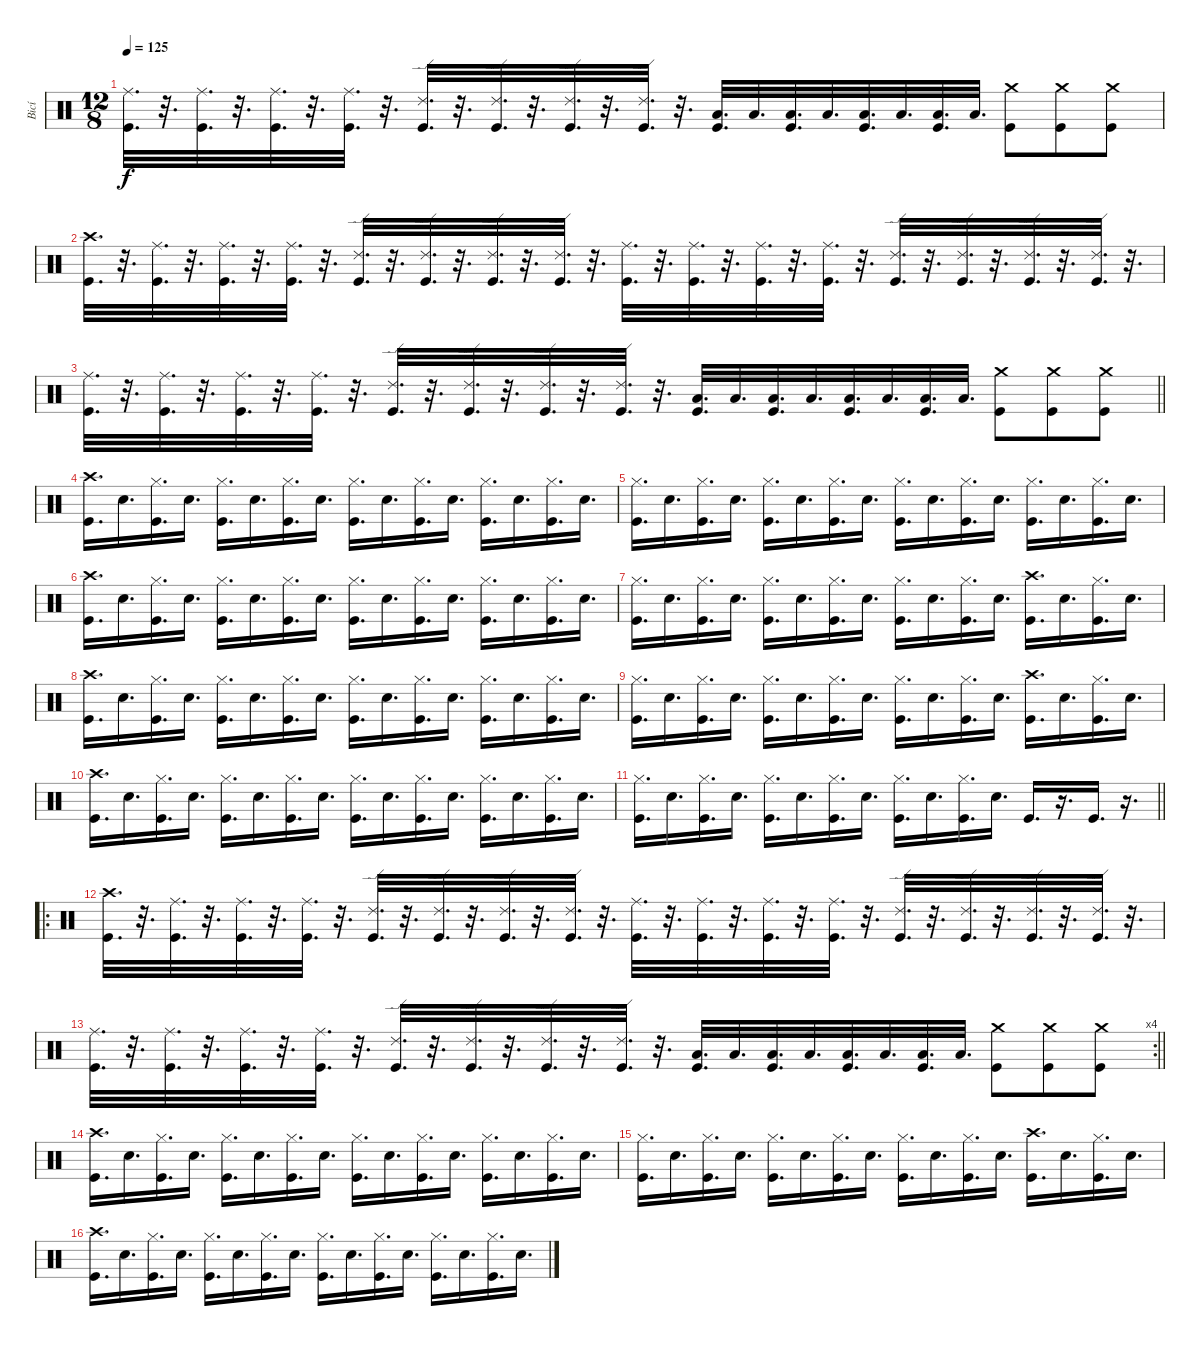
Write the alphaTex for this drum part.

\track ("Bicí" "Bicí") {instrument percussion}
\staff {score}
\articulation defaults
\ts (12 8)
\tempo 125
\clef neutral
\ks c
("Ride (middle)" "Kick (hit)").32{d dy f} r.32{d} ("Ride (middle)" "Kick (hit)").32{d} r.32{d} ("Ride (middle)" "Kick (hit)").32{d} r.32{d} ("Ride (middle)" "Kick (hit)").32{d} r.32{d} ("Ride (edge) 2" "Kick (hit)").32{d} r.32{d} ("Ride (edge) 2" "Kick (hit)").32{d} r.32{d} ("Ride (edge) 2" "Kick (hit)").32{d} r.32{d} ("Ride (edge) 2" "Kick (hit)").32{d} r.32{d} ("Low Tom (hit)" "Kick (hit)").32{d} "Low Tom (hit)".32{d} ("Low Tom (hit)" "Kick (hit)").32{d} "Low Tom (hit)".32{d} ("Low Tom (hit)" "Kick (hit)").32{d} "Low Tom (hit)".32{d} ("Low Tom (hit)" "Kick (hit)").32{d} "Low Tom (hit)".32{d} ("Crash medium (hit)" "Kick (hit)").8 ("Crash medium (hit)" "Kick (hit)").8 ("Crash medium (hit)" "Kick (hit)").8 |
("Crash high (hit)" "Kick (hit)").32{d} r.32{d} ("Ride (middle)" "Kick (hit)").32{d} r.32{d} ("Ride (middle)" "Kick (hit)").32{d} r.32{d} ("Ride (middle)" "Kick (hit)").32{d} r.32{d} ("Ride (edge) 2" "Kick (hit)").32{d} r.32{d} ("Ride (edge) 2" "Kick (hit)").32{d} r.32{d} ("Ride (edge) 2" "Kick (hit)").32{d} r.32{d} ("Ride (edge) 2" "Kick (hit)").32{d} r.32{d} ("Ride (middle)" "Kick (hit)").32{d} r.32{d} ("Ride (middle)" "Kick (hit)").32{d} r.32{d} ("Ride (middle)" "Kick (hit)").32{d} r.32{d} ("Ride (middle)" "Kick (hit)").32{d} r.32{d} ("Ride (edge) 2" "Kick (hit)").32{d} r.32{d} ("Ride (edge) 2" "Kick (hit)").32{d} r.32{d} ("Ride (edge) 2" "Kick (hit)").32{d} r.32{d} ("Ride (edge) 2" "Kick (hit)").32{d} r.32{d} |
\barLineRight lightlight
("Ride (middle)" "Kick (hit)").32{d} r.32{d} ("Ride (middle)" "Kick (hit)").32{d} r.32{d} ("Ride (middle)" "Kick (hit)").32{d} r.32{d} ("Ride (middle)" "Kick (hit)").32{d} r.32{d} ("Ride (edge) 2" "Kick (hit)").32{d} r.32{d} ("Ride (edge) 2" "Kick (hit)").32{d} r.32{d} ("Ride (edge) 2" "Kick (hit)").32{d} r.32{d} ("Ride (edge) 2" "Kick (hit)").32{d} r.32{d} ("Low Tom (hit)" "Kick (hit)").32{d} "Low Tom (hit)".32{d} ("Low Tom (hit)" "Kick (hit)").32{d} "Low Floor Tom (hit)".32{d} ("Low Floor Tom (hit)" "Kick (hit)").32{d} "Low Floor Tom (hit)".32{d} ("Low Floor Tom (hit)" "Kick (hit)").32{d} "Low Floor Tom (hit)".32{d} ("Crash medium (hit)" "Kick (hit)").8 ("Crash medium (hit)" "Kick (hit)").8 ("Crash medium (hit)" "Kick (hit)").8 |
("Crash high (hit)" "Kick (hit)").16{d} "Electric Snare (hit)".16{d} ("Hi-Hat (closed)" "Kick (hit)").16{d} "Electric Snare (hit)".16{d} ("Hi-Hat (closed)" "Kick (hit)").16{d} "Electric Snare (hit)".16{d} ("Hi-Hat (closed)" "Kick (hit)").16{d} "Electric Snare (hit)".16{d} ("Hi-Hat (closed)" "Kick (hit)").16{d} "Electric Snare (hit)".16{d} ("Hi-Hat (closed)" "Kick (hit)").16{d} "Electric Snare (hit)".16{d} ("Hi-Hat (closed)" "Kick (hit)").16{d} "Electric Snare (hit)".16{d} ("Hi-Hat (closed)" "Kick (hit)").16{d} "Electric Snare (hit)".16{d} |
("Hi-Hat (closed)" "Kick (hit)").16{d} "Electric Snare (hit)".16{d} ("Hi-Hat (closed)" "Kick (hit)").16{d} "Electric Snare (hit)".16{d} ("Hi-Hat (closed)" "Kick (hit)").16{d} "Electric Snare (hit)".16{d} ("Hi-Hat (closed)" "Kick (hit)").16{d} "Electric Snare (hit)".16{d} ("Hi-Hat (closed)" "Kick (hit)").16{d} "Electric Snare (hit)".16{d} ("Hi-Hat (closed)" "Kick (hit)").16{d} "Electric Snare (hit)".16{d} ("Hi-Hat (closed)" "Kick (hit)").16{d} "Electric Snare (hit)".16{d} ("Hi-Hat (closed)" "Kick (hit)").16{d} "Electric Snare (hit)".16{d} |
("Crash high (hit)" "Kick (hit)").16{d} "Electric Snare (hit)".16{d} ("Hi-Hat (closed)" "Kick (hit)").16{d} "Electric Snare (hit)".16{d} ("Hi-Hat (closed)" "Kick (hit)").16{d} "Electric Snare (hit)".16{d} ("Hi-Hat (closed)" "Kick (hit)").16{d} "Electric Snare (hit)".16{d} ("Hi-Hat (closed)" "Kick (hit)").16{d} "Electric Snare (hit)".16{d} ("Hi-Hat (closed)" "Kick (hit)").16{d} "Electric Snare (hit)".16{d} ("Hi-Hat (closed)" "Kick (hit)").16{d} "Electric Snare (hit)".16{d} ("Hi-Hat (closed)" "Kick (hit)").16{d} "Electric Snare (hit)".16{d} |
("Hi-Hat (closed)" "Kick (hit)").16{d} "Electric Snare (hit)".16{d} ("Hi-Hat (closed)" "Kick (hit)").16{d} "Electric Snare (hit)".16{d} ("Hi-Hat (closed)" "Kick (hit)").16{d} "Electric Snare (hit)".16{d} ("Hi-Hat (closed)" "Kick (hit)").16{d} "Electric Snare (hit)".16{d} ("Hi-Hat (closed)" "Kick (hit)").16{d} "Electric Snare (hit)".16{d} ("Hi-Hat (closed)" "Kick (hit)").16{d} "Electric Snare (hit)".16{d} ("Crash high (hit)" "Kick (hit)").16{d} "Electric Snare (hit)".16{d} ("Hi-Hat (closed)" "Kick (hit)").16{d} "Electric Snare (hit)".16{d} |
("Crash high (hit)" "Kick (hit)").16{d} "Electric Snare (hit)".16{d} ("Hi-Hat (closed)" "Kick (hit)").16{d} "Electric Snare (hit)".16{d} ("Hi-Hat (closed)" "Kick (hit)").16{d} "Electric Snare (hit)".16{d} ("Hi-Hat (closed)" "Kick (hit)").16{d} "Electric Snare (hit)".16{d} ("Hi-Hat (closed)" "Kick (hit)").16{d} "Electric Snare (hit)".16{d} ("Hi-Hat (closed)" "Kick (hit)").16{d} "Electric Snare (hit)".16{d} ("Hi-Hat (closed)" "Kick (hit)").16{d} "Electric Snare (hit)".16{d} ("Hi-Hat (closed)" "Kick (hit)").16{d} "Electric Snare (hit)".16{d} |
("Hi-Hat (closed)" "Kick (hit)").16{d} "Electric Snare (hit)".16{d} ("Hi-Hat (closed)" "Kick (hit)").16{d} "Electric Snare (hit)".16{d} ("Hi-Hat (closed)" "Kick (hit)").16{d} "Electric Snare (hit)".16{d} ("Hi-Hat (closed)" "Kick (hit)").16{d} "Electric Snare (hit)".16{d} ("Hi-Hat (closed)" "Kick (hit)").16{d} "Electric Snare (hit)".16{d} ("Hi-Hat (closed)" "Kick (hit)").16{d} "Electric Snare (hit)".16{d} ("Crash high (hit)" "Kick (hit)").16{d} "Electric Snare (hit)".16{d} ("Hi-Hat (closed)" "Kick (hit)").16{d} "Electric Snare (hit)".16{d} |
("Crash high (hit)" "Kick (hit)").16{d} "Electric Snare (hit)".16{d} ("Hi-Hat (closed)" "Kick (hit)").16{d} "Electric Snare (hit)".16{d} ("Hi-Hat (closed)" "Kick (hit)").16{d} "Electric Snare (hit)".16{d} ("Hi-Hat (closed)" "Kick (hit)").16{d} "Electric Snare (hit)".16{d} ("Hi-Hat (closed)" "Kick (hit)").16{d} "Electric Snare (hit)".16{d} ("Hi-Hat (closed)" "Kick (hit)").16{d} "Electric Snare (hit)".16{d} ("Hi-Hat (closed)" "Kick (hit)").16{d} "Electric Snare (hit)".16{d} ("Hi-Hat (closed)" "Kick (hit)").16{d} "Electric Snare (hit)".16{d} |
\barLineRight lightlight
("Hi-Hat (closed)" "Kick (hit)").16{d} "Electric Snare (hit)".16{d} ("Hi-Hat (closed)" "Kick (hit)").16{d} "Electric Snare (hit)".16{d} ("Hi-Hat (closed)" "Kick (hit)").16{d} "Electric Snare (hit)".16{d} ("Hi-Hat (closed)" "Kick (hit)").16{d} "Electric Snare (hit)".16{d} ("Hi-Hat (closed)" "Kick (hit)").16{d} "Electric Snare (hit)".16{d} ("Hi-Hat (closed)" "Kick (hit)").16{d} "Electric Snare (hit)".16{d} "Kick (hit)".16{d} r.16{d} "Kick (hit)".16{d} r.16{d} |
\ro
("Crash high (hit)" "Kick (hit)").32{d} r.32{d} ("Ride (middle)" "Kick (hit)").32{d} r.32{d} ("Ride (middle)" "Kick (hit)").32{d} r.32{d} ("Ride (middle)" "Kick (hit)").32{d} r.32{d} ("Ride (edge) 2" "Kick (hit)").32{d} r.32{d} ("Ride (edge) 2" "Kick (hit)").32{d} r.32{d} ("Ride (edge) 2" "Kick (hit)").32{d} r.32{d} ("Ride (edge) 2" "Kick (hit)").32{d} r.32{d} ("Ride (middle)" "Kick (hit)").32{d} r.32{d} ("Ride (middle)" "Kick (hit)").32{d} r.32{d} ("Ride (middle)" "Kick (hit)").32{d} r.32{d} ("Ride (middle)" "Kick (hit)").32{d} r.32{d} ("Ride (edge) 2" "Kick (hit)").32{d} r.32{d} ("Ride (edge) 2" "Kick (hit)").32{d} r.32{d} ("Ride (edge) 2" "Kick (hit)").32{d} r.32{d} ("Ride (edge) 2" "Kick (hit)").32{d} r.32{d} |
\rc 4
\barLineRight lightlight
("Ride (middle)" "Kick (hit)").32{d} r.32{d} ("Ride (middle)" "Kick (hit)").32{d} r.32{d} ("Ride (middle)" "Kick (hit)").32{d} r.32{d} ("Ride (middle)" "Kick (hit)").32{d} r.32{d} ("Ride (edge) 2" "Kick (hit)").32{d} r.32{d} ("Ride (edge) 2" "Kick (hit)").32{d} r.32{d} ("Ride (edge) 2" "Kick (hit)").32{d} r.32{d} ("Ride (edge) 2" "Kick (hit)").32{d} r.32{d} ("Low Tom (hit)" "Kick (hit)").32{d} "Low Tom (hit)".32{d} ("Low Tom (hit)" "Kick (hit)").32{d} "Low Tom (hit)".32{d} ("Low Tom (hit)" "Kick (hit)").32{d} "Low Tom (hit)".32{d} ("Low Floor Tom (hit)" "Kick (hit)").32{d} "Low Floor Tom (hit)".32{d} ("Crash medium (hit)" "Kick (hit)").8 ("Crash medium (hit)" "Kick (hit)").8 ("Crash medium (hit)" "Kick (hit)").8 |
("Crash high (hit)" "Kick (hit)").16{d} "Electric Snare (hit)".16{d} ("Hi-Hat (closed)" "Kick (hit)").16{d} "Electric Snare (hit)".16{d} ("Hi-Hat (closed)" "Kick (hit)").16{d} "Electric Snare (hit)".16{d} ("Hi-Hat (closed)" "Kick (hit)").16{d} "Electric Snare (hit)".16{d} ("Hi-Hat (closed)" "Kick (hit)").16{d} "Electric Snare (hit)".16{d} ("Hi-Hat (closed)" "Kick (hit)").16{d} "Electric Snare (hit)".16{d} ("Hi-Hat (closed)" "Kick (hit)").16{d} "Electric Snare (hit)".16{d} ("Hi-Hat (closed)" "Kick (hit)").16{d} "Electric Snare (hit)".16{d} |
("Hi-Hat (closed)" "Kick (hit)").16{d} "Electric Snare (hit)".16{d} ("Hi-Hat (closed)" "Kick (hit)").16{d} "Electric Snare (hit)".16{d} ("Hi-Hat (closed)" "Kick (hit)").16{d} "Electric Snare (hit)".16{d} ("Hi-Hat (closed)" "Kick (hit)").16{d} "Electric Snare (hit)".16{d} ("Hi-Hat (closed)" "Kick (hit)").16{d} "Electric Snare (hit)".16{d} ("Hi-Hat (closed)" "Kick (hit)").16{d} "Electric Snare (hit)".16{d} ("Crash high (hit)" "Kick (hit)").16{d} "Electric Snare (hit)".16{d} ("Hi-Hat (closed)" "Kick (hit)").16{d} "Electric Snare (hit)".16{d} |
("Crash high (hit)" "Kick (hit)").16{d} "Electric Snare (hit)".16{d} ("Hi-Hat (closed)" "Kick (hit)").16{d} "Electric Snare (hit)".16{d} ("Hi-Hat (closed)" "Kick (hit)").16{d} "Electric Snare (hit)".16{d} ("Hi-Hat (closed)" "Kick (hit)").16{d} "Electric Snare (hit)".16{d} ("Hi-Hat (closed)" "Kick (hit)").16{d} "Electric Snare (hit)".16{d} ("Hi-Hat (closed)" "Kick (hit)").16{d} "Electric Snare (hit)".16{d} ("Hi-Hat (closed)" "Kick (hit)").16{d} "Electric Snare (hit)".16{d} ("Hi-Hat (closed)" "Kick (hit)").16{d} "Electric Snare (hit)".16{d}
